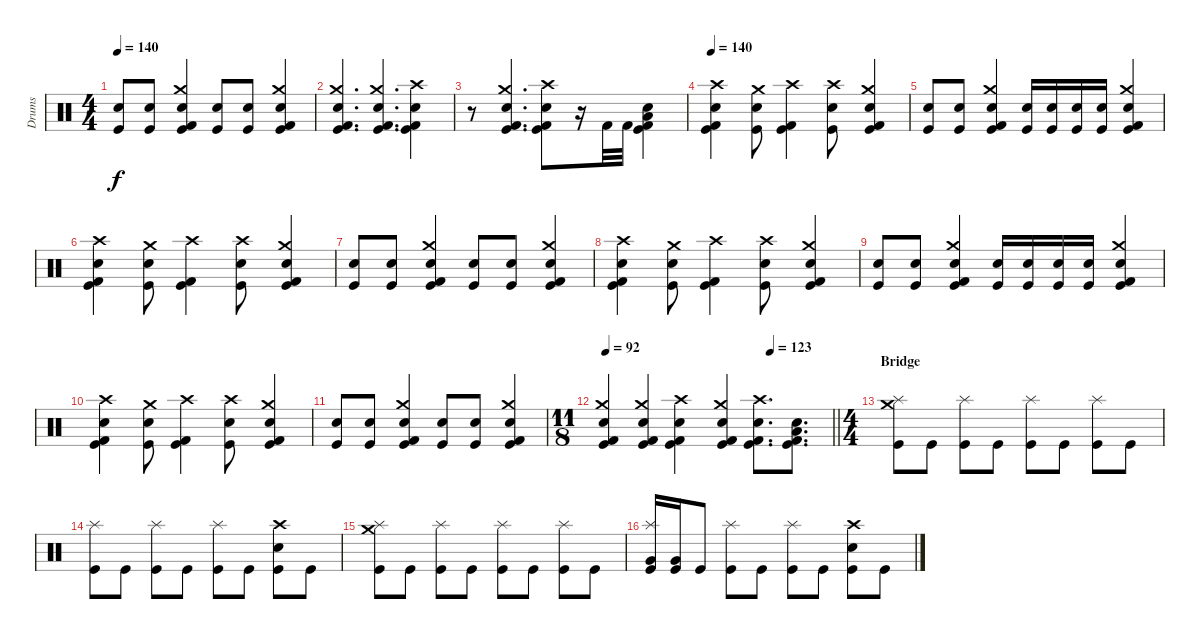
\track ("Drums" "Drums") {instrument percussion}
\staff {score}
\articulation defaults
\ts (4 4)
\tempo 140
\clef neutral
\ks c
("Snare (hit) 2" "Kick (hit)").8{dy f} ("Snare (hit) 2" "Kick (hit)").8 ("Crash medium (hit)" "Electric Snare (hit)" "Kick (hit) 2" "Kick (hit)").4 ("Snare (hit) 2" "Kick (hit)").8 ("Snare (hit) 2" "Kick (hit)").8 ("Crash medium (hit)" "Electric Snare (hit)" "Kick (hit) 2" "Kick (hit)").4 |
("Crash medium (hit)" "Snare (hit) 2" "Kick (hit) 2" "Kick (hit)").4{d} ("Crash medium (hit)" "Snare (hit) 2" "Kick (hit) 2" "Kick (hit)").4{d} ("Crash high (hit)" "Electric Snare (hit)" "Kick (hit) 2" "Kick (hit)").4 |
r.8 ("Crash medium (hit)" "Snare (hit) 2" "Kick (hit) 2" "Kick (hit)").4{d} ("Crash high (hit)" "Snare (hit) 2" "Kick (hit) 2" "Kick (hit)").8 r.16 "Kick (hit) 2".32 "Kick (hit) 2".32 ("Low Floor Tom (hit)" "Snare (hit) 2" "Kick (hit) 2" "Kick (hit)").4 |
\tempo 140
("Crash high (hit)" "Snare (hit) 2" "Kick (hit) 2" "Kick (hit)").4 ("Crash medium (hit)" "Snare (hit) 2" "Kick (hit)").8 ("Crash high (hit)" "Kick (hit) 2" "Kick (hit)").4 ("Crash high (hit)" "Snare (hit) 2" "Kick (hit)").8 ("Crash medium (hit)" "Electric Snare (hit)" "Kick (hit) 2" "Kick (hit)").4 |
("Snare (hit) 2" "Kick (hit)").8 ("Snare (hit) 2" "Kick (hit)").8 ("Crash medium (hit)" "Electric Snare (hit)" "Kick (hit) 2" "Kick (hit)").4 ("Snare (hit) 2" "Kick (hit)").16 ("Snare (hit) 2" "Kick (hit)").16 ("Snare (hit) 2" "Kick (hit)").16 ("Snare (hit) 2" "Kick (hit)").16 ("Crash medium (hit)" "Electric Snare (hit)" "Kick (hit) 2" "Kick (hit)").4 |
("Crash high (hit)" "Snare (hit) 2" "Kick (hit) 2" "Kick (hit)").4 ("Crash medium (hit)" "Snare (hit) 2" "Kick (hit)").8 ("Crash high (hit)" "Kick (hit) 2" "Kick (hit)").4 ("Crash high (hit)" "Snare (hit) 2" "Kick (hit)").8 ("Crash medium (hit)" "Electric Snare (hit)" "Kick (hit) 2" "Kick (hit)").4 |
("Snare (hit) 2" "Kick (hit)").8 ("Snare (hit) 2" "Kick (hit)").8 ("Crash medium (hit)" "Electric Snare (hit)" "Kick (hit) 2" "Kick (hit)").4 ("Snare (hit) 2" "Kick (hit)").8 ("Snare (hit) 2" "Kick (hit)").8 ("Crash medium (hit)" "Electric Snare (hit)" "Kick (hit) 2" "Kick (hit)").4 |
("Crash high (hit)" "Snare (hit) 2" "Kick (hit) 2" "Kick (hit)").4 ("Crash medium (hit)" "Snare (hit) 2" "Kick (hit)").8 ("Crash high (hit)" "Kick (hit) 2" "Kick (hit)").4 ("Crash high (hit)" "Snare (hit) 2" "Kick (hit)").8 ("Crash medium (hit)" "Electric Snare (hit)" "Kick (hit) 2" "Kick (hit)").4 |
("Snare (hit) 2" "Kick (hit)").8 ("Snare (hit) 2" "Kick (hit)").8 ("Crash medium (hit)" "Electric Snare (hit)" "Kick (hit) 2" "Kick (hit)").4 ("Snare (hit) 2" "Kick (hit)").16 ("Snare (hit) 2" "Kick (hit)").16 ("Snare (hit) 2" "Kick (hit)").16 ("Snare (hit) 2" "Kick (hit)").16 ("Crash medium (hit)" "Electric Snare (hit)" "Kick (hit) 2" "Kick (hit)").4 |
("Crash high (hit)" "Snare (hit) 2" "Kick (hit) 2" "Kick (hit)").4 ("Crash medium (hit)" "Snare (hit) 2" "Kick (hit)").8 ("Crash high (hit)" "Kick (hit) 2" "Kick (hit)").4 ("Crash high (hit)" "Snare (hit) 2" "Kick (hit)").8 ("Crash medium (hit)" "Electric Snare (hit)" "Kick (hit) 2" "Kick (hit)").4 |
("Snare (hit) 2" "Kick (hit)").8 ("Snare (hit) 2" "Kick (hit)").8 ("Crash medium (hit)" "Electric Snare (hit)" "Kick (hit) 2" "Kick (hit)").4 ("Snare (hit) 2" "Kick (hit)").8 ("Snare (hit) 2" "Kick (hit)").8 ("Crash medium (hit)" "Electric Snare (hit)" "Kick (hit) 2" "Kick (hit)").4 |
\ts (11 8)
\tempo 92
\tempo (123 0.7272727272727273)
\barLineRight lightlight
("Crash medium (hit)" "Snare (hit) 2" "Kick (hit) 2" "Kick (hit)").4 ("Crash medium (hit)" "Snare (hit) 2" "Kick (hit) 2" "Kick (hit)").4 ("Crash high (hit)" "Electric Snare (hit)" "Kick (hit) 2" "Kick (hit)").4 ("Crash medium (hit)" "Snare (hit) 2" "Kick (hit) 2" "Kick (hit)").4 ("Crash high (hit)" "Electric Snare (hit)" "Kick (hit) 2" "Kick (hit)").8{d} ("Low Floor Tom (hit)" "Snare (hit) 2" "Kick (hit) 2" "Kick (hit)").8{d} |
\ts (4 4)
\section ("" "Bridge")
("Crash medium (hit)" "Splash (hit)" "Kick (hit)").8 "Kick (hit)".8 ("Splash (hit)" "Kick (hit)").8 "Kick (hit)".8 ("Splash (hit)" "Kick (hit)").8 "Kick (hit)".8 ("Splash (hit)" "Kick (hit)").8 "Kick (hit)".8 |
("Splash (hit)" "Kick (hit)").8 "Kick (hit)".8 ("Splash (hit)" "Kick (hit)").8 "Kick (hit)".8 ("Splash (hit)" "Kick (hit)").8 "Kick (hit)".8 ("Crash high (hit)" "Snare (hit) 2" "Kick (hit)").8 "Kick (hit)".8 |
("Crash medium (hit)" "Splash (hit)" "Kick (hit)").8 "Kick (hit)".8 ("Splash (hit)" "Kick (hit)").8 "Kick (hit)".8 ("Splash (hit)" "Kick (hit)").8 "Kick (hit)".8 ("Splash (hit)" "Kick (hit)").8 "Kick (hit)".8 |
("Splash (hit)" "Very Low Tom (hit)" "Kick (hit)").16 ("Very Low Tom (hit)" "Kick (hit)").16 "Kick (hit)".8 ("Splash (hit)" "Kick (hit)").8 "Kick (hit)".8 ("Splash (hit)" "Kick (hit)").8 "Kick (hit)".8 ("Crash high (hit)" "Snare (hit) 2" "Kick (hit)").8 "Kick (hit)".8
